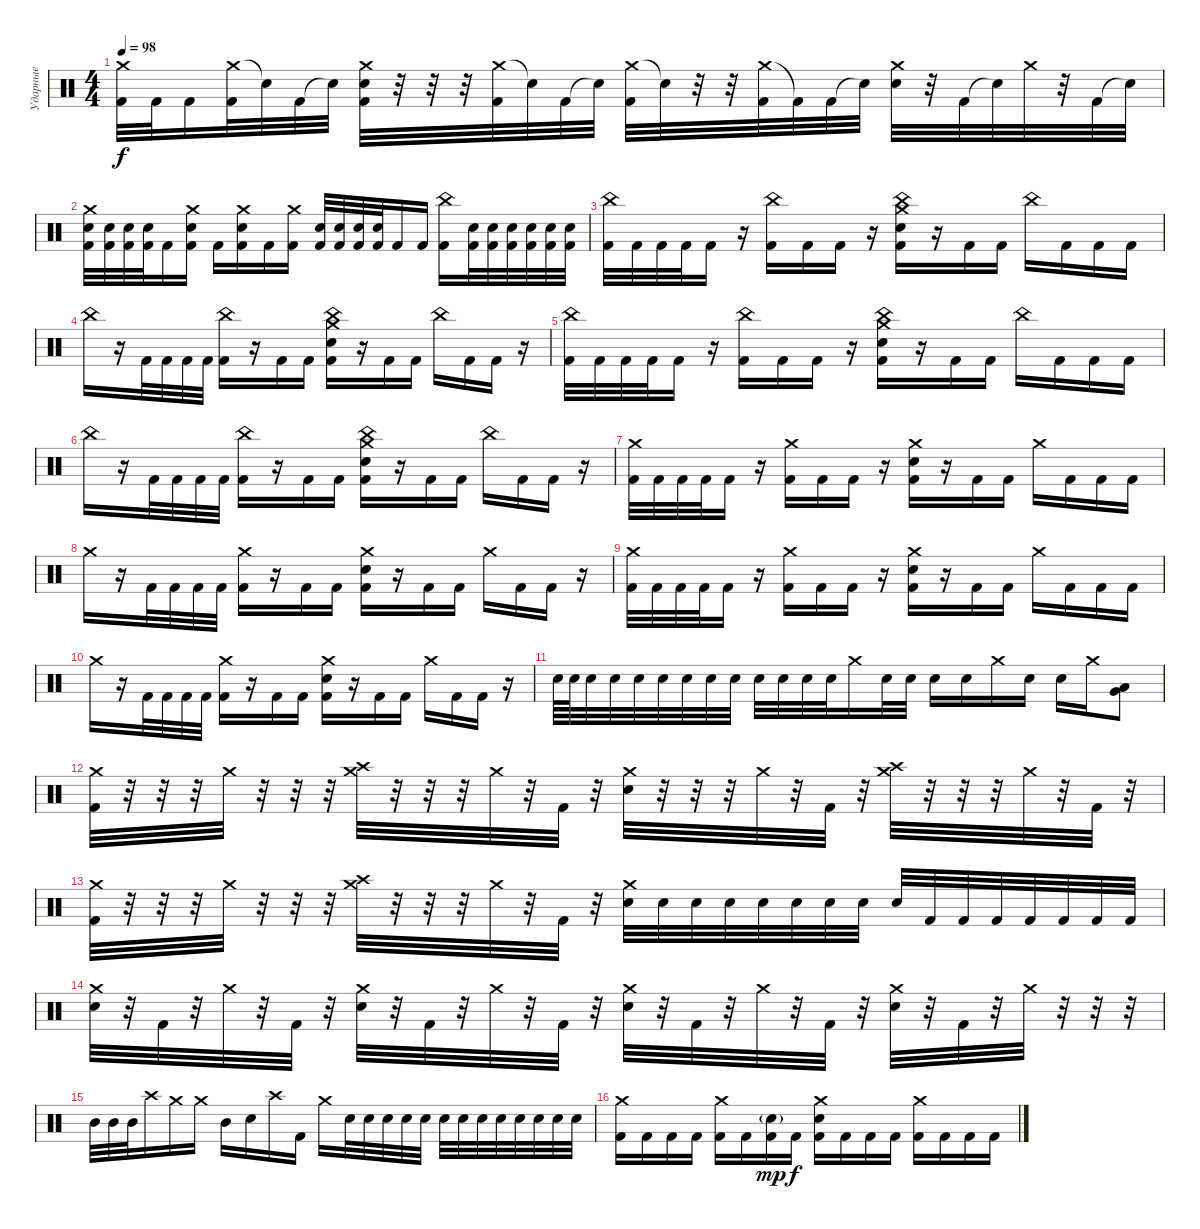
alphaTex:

\track ("Ударные" "Ударные") {instrument percussion}
\staff {score}
\articulation defaults
\ts (4 4)
\tempo 98
\clef neutral
\ks c
("Crash medium (hit)" "Kick (hit) 2").32{dy f} "Kick (hit) 2".32 "Kick (hit) 2".16 ("Crash medium (hit)" "Kick (hit) 2").32 "Snare (hit)"{t}.32 "Kick (hit) 2".32 "Snare (hit)"{t}.32 ("Crash medium (hit)" "Electric Snare (hit)" "Kick (hit) 2").32 r.32 r.32 r.32 ("Crash medium (hit)" "Kick (hit) 2").32 "Snare (hit)"{t}.32 "Kick (hit) 2".32 "Snare (hit)"{t}.32 ("Crash medium (hit)" "Kick (hit) 2").32 "Snare (hit)"{t}.32 r.32 r.32 ("Crash medium (hit)" "Kick (hit) 2").32 "Kick (hit) 2"{t}.32 "Kick (hit) 2".32 "Snare (hit)"{t}.32 ("Crash medium (hit)" "Electric Snare (hit)").32 r.32 "Kick (hit) 2".32 "Snare (hit)"{t}.32 "Crash medium (hit)".32 r.32 "Kick (hit) 2".32 "Snare (hit)"{t}.32 |
("Crash medium (hit)" "Electric Snare (hit)" "Kick (hit) 2").32 ("Electric Snare (hit)" "Kick (hit) 2").32 ("Electric Snare (hit)" "Kick (hit) 2").32 ("Electric Snare (hit)" "Kick (hit) 2").32 "Kick (hit) 2".16 ("Crash medium (hit)" "Electric Snare (hit)" "Kick (hit) 2").16 "Kick (hit) 2".16 ("Crash medium (hit)" "Electric Snare (hit)" "Kick (hit) 2").16 "Kick (hit) 2".16 ("Crash medium (hit)" "Kick (hit) 2").16 ("Electric Snare (hit)" "Kick (hit) 2").32 ("Electric Snare (hit)" "Kick (hit) 2").32 ("Electric Snare (hit)" "Kick (hit) 2").32 ("Electric Snare (hit)" "Kick (hit) 2").32 "Kick (hit) 2".16 "Kick (hit) 2".16 ("China (hit)" "Kick (hit) 2").16 ("Electric Snare (hit)" "Kick (hit) 2").32 ("Electric Snare (hit)" "Kick (hit) 2").32 ("Electric Snare (hit)" "Kick (hit) 2").32 ("Electric Snare (hit)" "Kick (hit) 2").32 ("Electric Snare (hit)" "Kick (hit) 2").32 ("Electric Snare (hit)" "Kick (hit) 2").32 |
("China (hit)" "Kick (hit) 2").32 "Kick (hit) 2".32 "Kick (hit) 2".32 "Kick (hit) 2".32 "Kick (hit) 2".16 r.16 ("China (hit)" "Kick (hit) 2").16 "Kick (hit) 2".16 "Kick (hit) 2".16 r.16 ("China (hit)" "Crash medium (hit)" "Electric Snare (hit)" "Kick (hit) 2").16 r.16 "Kick (hit) 2".16 "Kick (hit) 2".16 "China (hit)".16 "Kick (hit) 2".16 "Kick (hit) 2".16 "Kick (hit) 2".16 |
"China (hit)".16 r.16 "Kick (hit) 2".32 "Kick (hit) 2".32 "Kick (hit) 2".32 "Kick (hit) 2".32 ("China (hit)" "Kick (hit) 2").16 r.16 "Kick (hit) 2".16 "Kick (hit) 2".16 ("China (hit)" "Crash medium (hit)" "Electric Snare (hit)" "Kick (hit) 2").16 r.16 "Kick (hit) 2".16 "Kick (hit) 2".16 "China (hit)".16 "Kick (hit) 2".16 "Kick (hit) 2".16 r.16 |
("China (hit)" "Kick (hit) 2").32 "Kick (hit) 2".32 "Kick (hit) 2".32 "Kick (hit) 2".32 "Kick (hit) 2".16 r.16 ("China (hit)" "Kick (hit) 2").16 "Kick (hit) 2".16 "Kick (hit) 2".16 r.16 ("China (hit)" "Crash medium (hit)" "Electric Snare (hit)" "Kick (hit) 2").16 r.16 "Kick (hit) 2".16 "Kick (hit) 2".16 "China (hit)".16 "Kick (hit) 2".16 "Kick (hit) 2".16 "Kick (hit) 2".16 |
"China (hit)".16 r.16 "Kick (hit) 2".32 "Kick (hit) 2".32 "Kick (hit) 2".32 "Kick (hit) 2".32 ("China (hit)" "Kick (hit) 2").16 r.16 "Kick (hit) 2".16 "Kick (hit) 2".16 ("China (hit)" "Crash medium (hit)" "Electric Snare (hit)" "Kick (hit) 2").16 r.16 "Kick (hit) 2".16 "Kick (hit) 2".16 "China (hit)".16 "Kick (hit) 2".16 "Kick (hit) 2".16 r.16 |
("Crash medium (hit)" "Kick (hit) 2").32 "Kick (hit) 2".32 "Kick (hit) 2".32 "Kick (hit) 2".32 "Kick (hit) 2".16 r.16 ("Crash medium (hit)" "Kick (hit) 2").16 "Kick (hit) 2".16 "Kick (hit) 2".16 r.16 ("Crash medium (hit)" "Electric Snare (hit)" "Kick (hit) 2").16 r.16 "Kick (hit) 2".16 "Kick (hit) 2".16 "Crash medium (hit)".16 "Kick (hit) 2".16 "Kick (hit) 2".16 "Kick (hit) 2".16 |
"Crash medium (hit)".16 r.16 "Kick (hit) 2".32 "Kick (hit) 2".32 "Kick (hit) 2".32 "Kick (hit) 2".32 ("Crash medium (hit)" "Kick (hit) 2").16 r.16 "Kick (hit) 2".16 "Kick (hit) 2".16 ("Crash medium (hit)" "Electric Snare (hit)" "Kick (hit) 2").16 r.16 "Kick (hit) 2".16 "Kick (hit) 2".16 "Crash medium (hit)".16 "Kick (hit) 2".16 "Kick (hit) 2".16 r.16 |
("Crash medium (hit)" "Kick (hit) 2").32 "Kick (hit) 2".32 "Kick (hit) 2".32 "Kick (hit) 2".32 "Kick (hit) 2".16 r.16 ("Crash medium (hit)" "Kick (hit) 2").16 "Kick (hit) 2".16 "Kick (hit) 2".16 r.16 ("Crash medium (hit)" "Electric Snare (hit)" "Kick (hit) 2").16 r.16 "Kick (hit) 2".16 "Kick (hit) 2".16 "Crash medium (hit)".16 "Kick (hit) 2".16 "Kick (hit) 2".16 "Kick (hit) 2".16 |
"Crash medium (hit)".16 r.16 "Kick (hit) 2".32 "Kick (hit) 2".32 "Kick (hit) 2".32 "Kick (hit) 2".32 ("Crash medium (hit)" "Kick (hit) 2").16 r.16 "Kick (hit) 2".16 "Kick (hit) 2".16 ("Crash medium (hit)" "Electric Snare (hit)" "Kick (hit) 2").16 r.16 "Kick (hit) 2".16 "Kick (hit) 2".16 "Crash medium (hit)".16 "Kick (hit) 2".16 "Kick (hit) 2".16 r.16 |
"Electric Snare (hit)".64 "Electric Snare (hit)".64 "Electric Snare (hit)".32 "Electric Snare (hit)".32 "Electric Snare (hit)".32 "Electric Snare (hit)".32 "Electric Snare (hit)".32 "Electric Snare (hit)".32 "Electric Snare (hit)".32 "Electric Snare (hit)".32 "Electric Snare (hit)".32 "Electric Snare (hit)".32 "Electric Snare (hit)".32 "Crash medium (hit)".16 "Electric Snare (hit)".32 "Electric Snare (hit)".32 "Electric Snare (hit)".16 "Electric Snare (hit)".16 "Crash medium (hit)".16 "Electric Snare (hit)".16 "Electric Snare (hit)".16 "Crash medium (hit)".16 ("Low Tom (hit)" "Very Low Tom (hit)").8 |
("Crash medium (hit)" "Kick (hit) 2").32 r.32 r.32 r.32 "Crash medium (hit)".32 r.32 r.32 r.32 ("Crash medium (hit)" "Crash high (hit)").32 r.32 r.32 r.32 "Crash medium (hit)".32 r.32 "Kick (hit) 2".32 r.32 ("Crash medium (hit)" "Electric Snare (hit)").32 r.32 r.32 r.32 "Crash medium (hit)".32 r.32 "Kick (hit) 2".32 r.32 ("Crash medium (hit)" "Crash high (hit)").32 r.32 r.32 r.32 "Crash medium (hit)".32 r.32 "Kick (hit) 2".32 r.32 |
("Crash medium (hit)" "Kick (hit) 2").32 r.32 r.32 r.32 "Crash medium (hit)".32 r.32 r.32 r.32 ("Crash medium (hit)" "Crash high (hit)").32 r.32 r.32 r.32 "Crash medium (hit)".32 r.32 "Kick (hit) 2".32 r.32 ("Crash medium (hit)" "Electric Snare (hit)").32 "Electric Snare (hit)".32 "Electric Snare (hit)".32 "Electric Snare (hit)".32 "Electric Snare (hit)".32 "Electric Snare (hit)".32 "Electric Snare (hit)".32 "Electric Snare (hit)".32 "Electric Snare (hit)".32 "Kick (hit) 2".32 "Kick (hit) 2".32 "Kick (hit) 2".32 "Kick (hit) 2".32 "Kick (hit) 2".32 "Kick (hit) 2".32 "Kick (hit) 2".32 |
("Crash medium (hit)" "Electric Snare (hit)").32 r.32 "Kick (hit) 2".32 r.32 "Crash medium (hit)".32 r.32 "Kick (hit) 2".32 r.32 ("Crash medium (hit)" "Electric Snare (hit)").32 r.32 "Kick (hit) 2".32 r.32 "Crash medium (hit)".32 r.32 "Kick (hit) 2".32 r.32 ("Crash medium (hit)" "Electric Snare (hit)").32 r.32 "Kick (hit) 2".32 r.32 "Crash medium (hit)".32 r.32 "Kick (hit) 2".32 r.32 ("Crash medium (hit)" "Electric Snare (hit)").32 r.32 "Kick (hit) 2".32 r.32 "Crash medium (hit)".32 r.32 r.32 r.32 |
"Mid Tom (hit)".32 "Mid Tom (hit)".32 "Mid Tom (hit)".32 "Crash high (hit)".16 "Crash medium (hit)".16 "Crash medium (hit)".16 "Mid Tom (hit)".16 "Electric Snare (hit)".16 "Crash high (hit)".16 "Kick (hit) 2".16 "Crash medium (hit)".16 "Electric Snare (hit)".32 "Electric Snare (hit)".32 "Electric Snare (hit)".32 "Electric Snare (hit)".32 "Electric Snare (hit)".32 "Electric Snare (hit)".32 "Electric Snare (hit)".32 "Electric Snare (hit)".32 "Electric Snare (hit)".32 "Electric Snare (hit)".32 "Electric Snare (hit)".32 "Electric Snare (hit)".32 "Electric Snare (hit)".32 |
("Crash medium (hit)" "Kick (hit) 2").16 "Kick (hit) 2".16 "Kick (hit) 2".16 "Kick (hit) 2".16 ("Crash medium (hit)" "Kick (hit) 2").16 "Kick (hit) 2".16 ("Electric Snare (hit)"{g} "Kick (hit) 2").16{dy mp} "Kick (hit) 2".16{dy f} ("Crash medium (hit)" "Electric Snare (hit)" "Kick (hit) 2").16 "Kick (hit) 2".16 "Kick (hit) 2".16 "Kick (hit) 2".16 ("Crash medium (hit)" "Kick (hit) 2").16 "Kick (hit) 2".16 "Kick (hit) 2".16 "Kick (hit) 2".16
